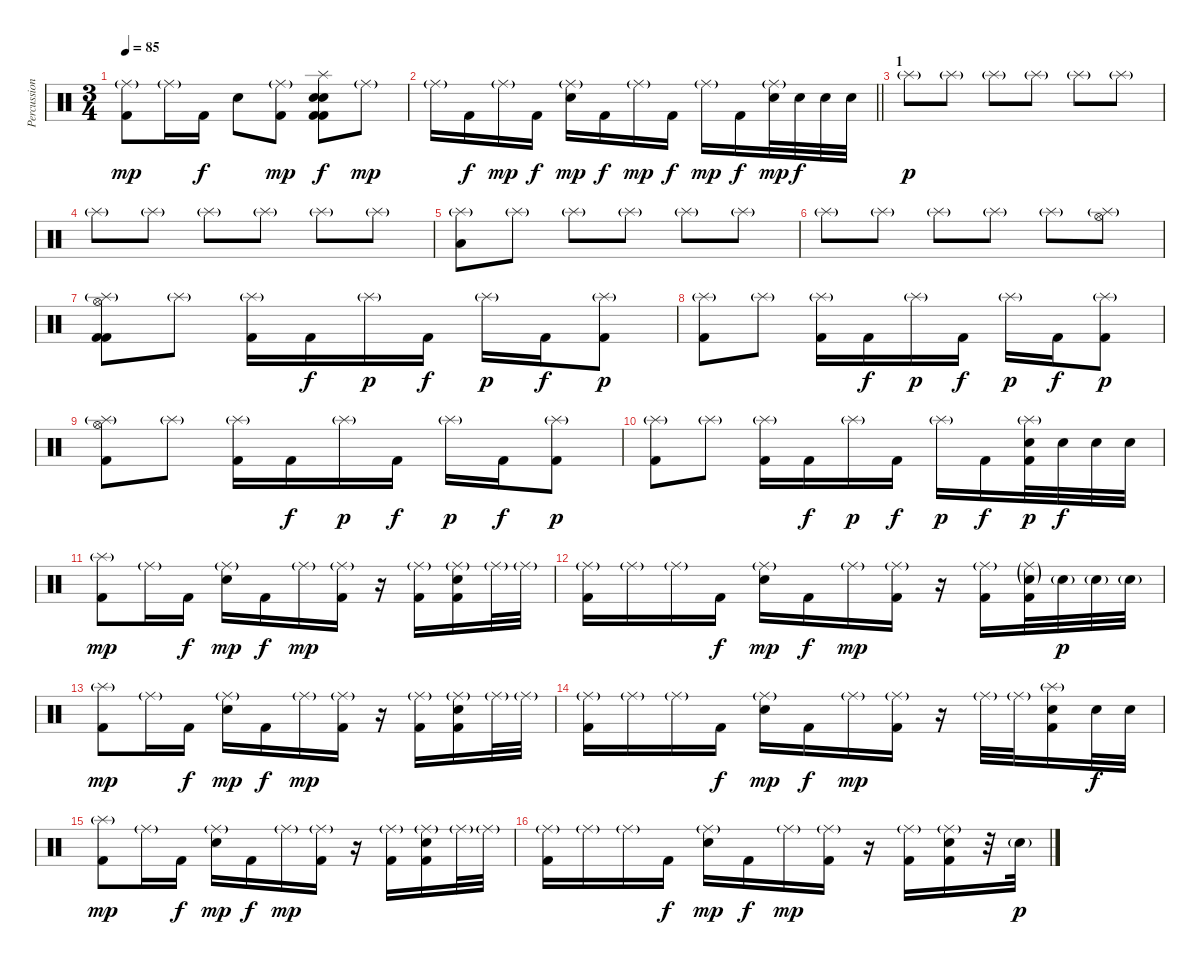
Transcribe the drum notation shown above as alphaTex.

\track ("Percussion" "Percussion") {instrument percussion}
\staff {score}
\articulation defaults
\ts (3 4)
\tempo 85
\clef neutral
\ks c
("Ride (middle)"{g} "Kick (hit) 2").8{dy mp} "Ride (middle)"{g}.16 "Kick (hit) 2".16{dy f} "Snare (hit) 2".8 ("Ride (middle)"{g} "Kick (hit) 2").8{dy mp} ("Splash (hit)" "Snare (hit) 2" "Snare (hit) 2" "Kick (hit) 2" "Kick (hit) 2").8{dy f} "Ride (middle)"{g}.8{dy mp} |
\barLineRight lightlight "Ride (middle)"{g}.16 "Kick (hit) 2".16{dy f} "Ride (middle)"{g}.16{dy mp} "Kick (hit) 2".16{dy f}
("Ride (middle)"{g} "Snare (hit) 2").16{dy mp} "Kick (hit) 2".16{dy f} "Ride (middle)"{g}.16{dy mp} "Kick (hit) 2".16{dy f} "Ride (middle)"{g}.16{dy mp} "Kick (hit) 2".16{dy f} ("Ride (middle)"{g} "Snare (hit) 2").32{dy mp} "Snare (hit) 2".32{dy f} "Snare (hit) 2".32 "Snare (hit) 2".32 |
\section ("" "1")
"Splash (hit)"{g}.8{dy p} "Splash (hit)"{g}.8 "Splash (hit)"{g}.8 "Splash (hit)"{g}.8 "Splash (hit)"{g}.8 "Splash (hit)"{g}.8 |
"Splash (hit)"{g}.8 "Splash (hit)"{g}.8 "Splash (hit)"{g}.8 "Splash (hit)"{g}.8 "Splash (hit)"{g}.8 "Splash (hit)"{g}.8 |
("Splash (hit)"{g} "Low Floor Tom (hit)").8 "Splash (hit)"{g}.8 "Splash (hit)"{g}.8 "Splash (hit)"{g}.8 "Splash (hit)"{g}.8 "Splash (hit)"{g}.8 |
"Splash (hit)"{g}.8 "Splash (hit)"{g}.8 "Splash (hit)"{g}.8 "Splash (hit)"{g}.8 "Splash (hit)"{g}.8 ("Splash (hit)"{g} "Hi-Hat (open)").8 |
("Splash (hit)"{g} "Hi-Hat (open)" "Kick (hit) 2" "Kick (hit) 2").8 "Splash (hit)"{g}.8 ("Splash (hit)"{g} "Kick (hit) 2").16 "Kick (hit) 2".16{dy f} "Splash (hit)"{g}.16{dy p} "Kick (hit) 2".16{dy f} "Splash (hit)"{g}.16{dy p} "Kick (hit) 2".16{dy f} ("Splash (hit)"{g} "Kick (hit) 2").8{dy p} |
("Splash (hit)"{g} "Kick (hit) 2").8 "Splash (hit)"{g}.8 ("Splash (hit)"{g} "Kick (hit) 2").16 "Kick (hit) 2".16{dy f} "Splash (hit)"{g}.16{dy p} "Kick (hit) 2".16{dy f} "Splash (hit)"{g}.16{dy p} "Kick (hit) 2".16{dy f} ("Splash (hit)"{g} "Kick (hit) 2").8{dy p} |
("Splash (hit)"{g} "Hi-Hat (open)" "Kick (hit) 2").8 "Splash (hit)"{g}.8 ("Splash (hit)"{g} "Kick (hit) 2").16 "Kick (hit) 2".16{dy f} "Splash (hit)"{g}.16{dy p} "Kick (hit) 2".16{dy f} "Splash (hit)"{g}.16{dy p} "Kick (hit) 2".16{dy f} ("Splash (hit)"{g} "Kick (hit) 2").8{dy p} |
("Splash (hit)"{g} "Kick (hit) 2").8 "Splash (hit)"{g}.8 ("Splash (hit)"{g} "Kick (hit) 2").16 "Kick (hit) 2".16{dy f} "Splash (hit)"{g}.16{dy p} "Kick (hit) 2".16{dy f} "Splash (hit)"{g}.16{dy p} "Kick (hit) 2".16{dy f} ("Splash (hit)"{g} "Snare (hit) 2" "Kick (hit) 2").32{dy p} "Snare (hit) 2".32{dy f} "Snare (hit) 2".32 "Snare (hit) 2".32 |
("Splash (hit)"{g} "Kick (hit) 2").8{dy mp} "Ride (middle)"{g}.16 "Kick (hit) 2".16{dy f} ("Ride (middle)"{g} "Snare (hit) 2").16{dy mp} "Kick (hit) 2".16{dy f} "Ride (middle)"{g}.16{dy mp} ("Ride (middle)"{g} "Kick (hit) 2").16 r.16 ("Ride (middle)"{g} "Kick (hit) 2").16 ("Ride (middle)"{g} "Snare (hit) 2" "Kick (hit) 2").16 "Ride (middle)"{g}.32 "Ride (middle)"{g}.32 |
("Ride (middle)"{g} "Kick (hit) 2").16 "Ride (middle)"{g}.16 "Ride (middle)"{g}.16 "Kick (hit) 2".16{dy f} ("Ride (middle)"{g} "Snare (hit) 2").16{dy mp} "Kick (hit) 2".16{dy f} "Ride (middle)"{g}.16{dy mp} ("Ride (middle)"{g} "Kick (hit) 2").16 r.16 ("Ride (middle)"{g} "Kick (hit) 2").16 ("Ride (middle)"{g} "Snare (hit) 2"{g} "Kick (hit) 2").32 "Snare (hit) 2"{g}.32{dy p} "Snare (hit) 2"{g}.32 "Snare (hit) 2"{g}.32 |
("Splash (hit)"{g} "Kick (hit) 2").8{dy mp} "Ride (middle)"{g}.16 "Kick (hit) 2".16{dy f} ("Ride (middle)"{g} "Snare (hit) 2").16{dy mp} "Kick (hit) 2".16{dy f} "Ride (middle)"{g}.16{dy mp} ("Ride (middle)"{g} "Kick (hit) 2").16 r.16 ("Ride (middle)"{g} "Kick (hit) 2").16 ("Ride (middle)"{g} "Snare (hit) 2" "Kick (hit) 2").16 "Ride (middle)"{g}.32 "Ride (middle)"{g}.32 |
("Ride (middle)"{g} "Kick (hit) 2").16 "Ride (middle)"{g}.16 "Ride (middle)"{g}.16 "Kick (hit) 2".16{dy f} ("Ride (middle)"{g} "Snare (hit) 2").16{dy mp} "Kick (hit) 2".16{dy f} "Ride (middle)"{g}.16{dy mp} ("Ride (middle)"{g} "Kick (hit) 2").16 r.16 "Ride (middle)"{g}.32 "Ride (middle)"{g}.32 ("Splash (hit)"{g} "Snare (hit) 2" "Kick (hit) 2").16 "Snare (hit) 2".32{dy f} "Snare (hit) 2".32 |
("Splash (hit)"{g} "Kick (hit) 2").8{dy mp} "Ride (middle)"{g}.16 "Kick (hit) 2".16{dy f} ("Ride (middle)"{g} "Snare (hit) 2").16{dy mp} "Kick (hit) 2".16{dy f} "Ride (middle)"{g}.16{dy mp} ("Ride (middle)"{g} "Kick (hit) 2").16 r.16 ("Ride (middle)"{g} "Kick (hit) 2").16 ("Ride (middle)"{g} "Snare (hit) 2" "Kick (hit) 2").16 "Ride (middle)"{g}.32 "Ride (middle)"{g}.32 |
("Ride (middle)"{g} "Kick (hit) 2").16 "Ride (middle)"{g}.16 "Ride (middle)"{g}.16 "Kick (hit) 2".16{dy f} ("Ride (middle)"{g} "Snare (hit) 2").16{dy mp} "Kick (hit) 2".16{dy f} "Ride (middle)"{g}.16{dy mp} ("Ride (middle)"{g} "Kick (hit) 2").16 r.16 ("Ride (middle)"{g} "Kick (hit) 2").16 ("Ride (middle)"{g} "Snare (hit) 2" "Kick (hit) 2").16 r.32 "Snare (hit) 2"{g}.32{dy p}
